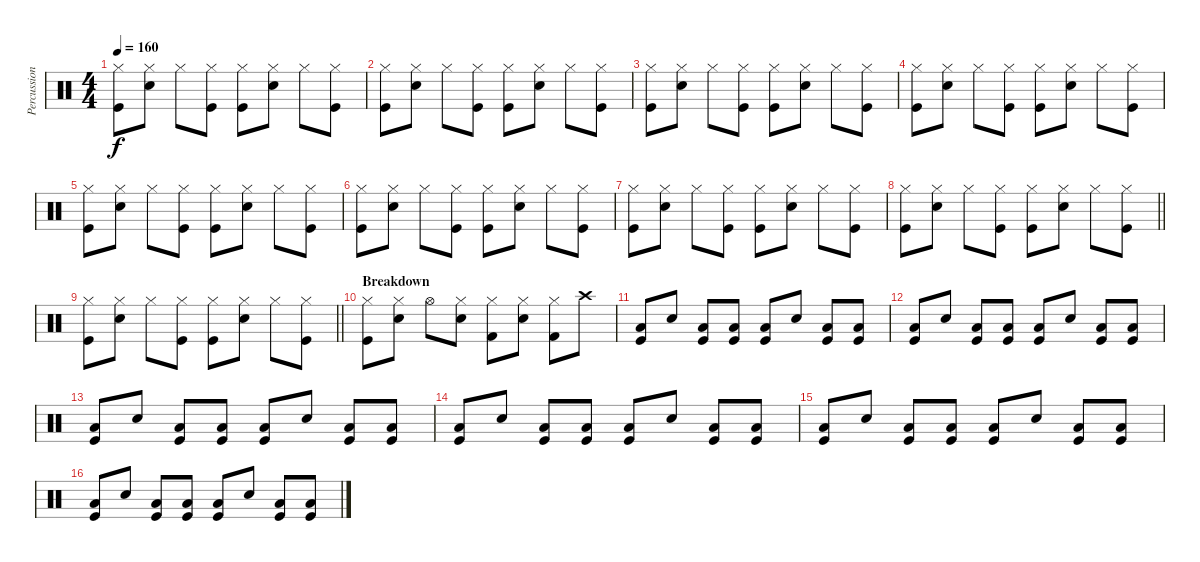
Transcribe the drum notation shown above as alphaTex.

\track ("Percussion" "Percussion") {instrument percussion}
\staff {score}
\articulation defaults
\ts (4 4)
\section ("" "")
\tempo 160
\clef neutral
\ks c
("Hi-Hat (closed)" "Kick (hit)").8{dy f} ("Hi-Hat (closed)" "Electric Snare (hit)").8 "Hi-Hat (closed)".8 ("Hi-Hat (closed)" "Kick (hit)").8 ("Hi-Hat (closed)" "Kick (hit)").8 ("Hi-Hat (closed)" "Electric Snare (hit)").8 "Hi-Hat (closed)".8 ("Hi-Hat (closed)" "Kick (hit)").8 |
("Hi-Hat (closed)" "Kick (hit)").8 ("Hi-Hat (closed)" "Electric Snare (hit)").8 "Hi-Hat (closed)".8 ("Hi-Hat (closed)" "Kick (hit)").8 ("Hi-Hat (closed)" "Kick (hit)").8 ("Hi-Hat (closed)" "Electric Snare (hit)").8 "Hi-Hat (closed)".8 ("Hi-Hat (closed)" "Kick (hit)").8 |
("Hi-Hat (closed)" "Kick (hit)").8 ("Hi-Hat (closed)" "Electric Snare (hit)").8 "Hi-Hat (closed)".8 ("Hi-Hat (closed)" "Kick (hit)").8 ("Hi-Hat (closed)" "Kick (hit)").8 ("Hi-Hat (closed)" "Electric Snare (hit)").8 "Hi-Hat (closed)".8 ("Hi-Hat (closed)" "Kick (hit)").8 |
("Hi-Hat (closed)" "Kick (hit)").8 ("Hi-Hat (closed)" "Electric Snare (hit)").8 "Hi-Hat (closed)".8 ("Hi-Hat (closed)" "Kick (hit)").8 ("Hi-Hat (closed)" "Kick (hit)").8 ("Hi-Hat (closed)" "Electric Snare (hit)").8 "Hi-Hat (closed)".8 ("Hi-Hat (closed)" "Kick (hit)").8 |
("Hi-Hat (closed)" "Kick (hit)").8 ("Hi-Hat (closed)" "Electric Snare (hit)").8 "Hi-Hat (closed)".8 ("Hi-Hat (closed)" "Kick (hit)").8 ("Hi-Hat (closed)" "Kick (hit)").8 ("Hi-Hat (closed)" "Electric Snare (hit)").8 "Hi-Hat (closed)".8 ("Hi-Hat (closed)" "Kick (hit)").8 |
("Hi-Hat (closed)" "Kick (hit)").8 ("Hi-Hat (closed)" "Electric Snare (hit)").8 "Hi-Hat (closed)".8 ("Hi-Hat (closed)" "Kick (hit)").8 ("Hi-Hat (closed)" "Kick (hit)").8 ("Hi-Hat (closed)" "Electric Snare (hit)").8 "Hi-Hat (closed)".8 ("Hi-Hat (closed)" "Kick (hit)").8 |
("Hi-Hat (closed)" "Kick (hit)").8 ("Hi-Hat (closed)" "Electric Snare (hit)").8 "Hi-Hat (closed)".8 ("Hi-Hat (closed)" "Kick (hit)").8 ("Hi-Hat (closed)" "Kick (hit)").8 ("Hi-Hat (closed)" "Electric Snare (hit)").8 "Hi-Hat (closed)".8 ("Hi-Hat (closed)" "Kick (hit)").8 |
\barLineRight lightlight
("Hi-Hat (closed)" "Kick (hit)").8 ("Hi-Hat (closed)" "Electric Snare (hit)").8 "Hi-Hat (closed)".8 ("Hi-Hat (closed)" "Kick (hit)").8 ("Hi-Hat (closed)" "Kick (hit)").8 ("Hi-Hat (closed)" "Electric Snare (hit)").8 "Hi-Hat (closed)".8 ("Hi-Hat (closed)" "Kick (hit)").8 |
\barLineRight lightlight
("Hi-Hat (closed)" "Kick (hit)").8 ("Hi-Hat (closed)" "Electric Snare (hit)").8 "Hi-Hat (closed)".8 ("Hi-Hat (closed)" "Kick (hit)").8 ("Hi-Hat (closed)" "Kick (hit)").8 ("Hi-Hat (closed)" "Electric Snare (hit)").8 "Hi-Hat (closed)".8 ("Hi-Hat (closed)" "Kick (hit)").8 |
\section ("" "Breakdown")
("Hi-Hat (closed)" "Kick (hit)").8 ("Hi-Hat (closed)" "Electric Snare (hit)").8 "Hi-Hat (open)".8 ("Hi-Hat (closed)" "Snare (hit) 2").8 ("Hi-Hat (closed)" "Kick (hit) 2").8 ("Hi-Hat (closed)" "Snare (hit) 2").8 ("Hi-Hat (closed)" "Kick (hit) 2").8 "Crash high (hit)".8 |
("Low Floor Tom (hit)" "Kick (hit)").8 "Electric Snare (hit)".8 ("Low Floor Tom (hit)" "Kick (hit)").8 ("Low Floor Tom (hit)" "Kick (hit)").8 ("Low Floor Tom (hit)" "Kick (hit)").8 "Electric Snare (hit)".8 ("Low Floor Tom (hit)" "Kick (hit)").8 ("Low Floor Tom (hit)" "Kick (hit)").8 |
("Low Floor Tom (hit)" "Kick (hit)").8 "Electric Snare (hit)".8 ("Low Floor Tom (hit)" "Kick (hit)").8 ("Low Floor Tom (hit)" "Kick (hit)").8 ("Low Floor Tom (hit)" "Kick (hit)").8 "Electric Snare (hit)".8 ("Low Floor Tom (hit)" "Kick (hit)").8 ("Low Floor Tom (hit)" "Kick (hit)").8 |
("Low Floor Tom (hit)" "Kick (hit)").8 "Electric Snare (hit)".8 ("Low Floor Tom (hit)" "Kick (hit)").8 ("Low Floor Tom (hit)" "Kick (hit)").8 ("Low Floor Tom (hit)" "Kick (hit)").8 "Electric Snare (hit)".8 ("Low Floor Tom (hit)" "Kick (hit)").8 ("Low Floor Tom (hit)" "Kick (hit)").8 |
("Low Floor Tom (hit)" "Kick (hit)").8 "Electric Snare (hit)".8 ("Low Floor Tom (hit)" "Kick (hit)").8 ("Low Floor Tom (hit)" "Kick (hit)").8 ("Low Floor Tom (hit)" "Kick (hit)").8 "Electric Snare (hit)".8 ("Low Floor Tom (hit)" "Kick (hit)").8 ("Low Floor Tom (hit)" "Kick (hit)").8 |
("Low Floor Tom (hit)" "Kick (hit)").8 "Electric Snare (hit)".8 ("Low Floor Tom (hit)" "Kick (hit)").8 ("Low Floor Tom (hit)" "Kick (hit)").8 ("Low Floor Tom (hit)" "Kick (hit)").8 "Electric Snare (hit)".8 ("Low Floor Tom (hit)" "Kick (hit)").8 ("Low Floor Tom (hit)" "Kick (hit)").8 |
("Low Floor Tom (hit)" "Kick (hit)").8 "Electric Snare (hit)".8 ("Low Floor Tom (hit)" "Kick (hit)").8 ("Low Floor Tom (hit)" "Kick (hit)").8 ("Low Floor Tom (hit)" "Kick (hit)").8 "Electric Snare (hit)".8 ("Low Floor Tom (hit)" "Kick (hit)").8 ("Low Floor Tom (hit)" "Kick (hit)").8
